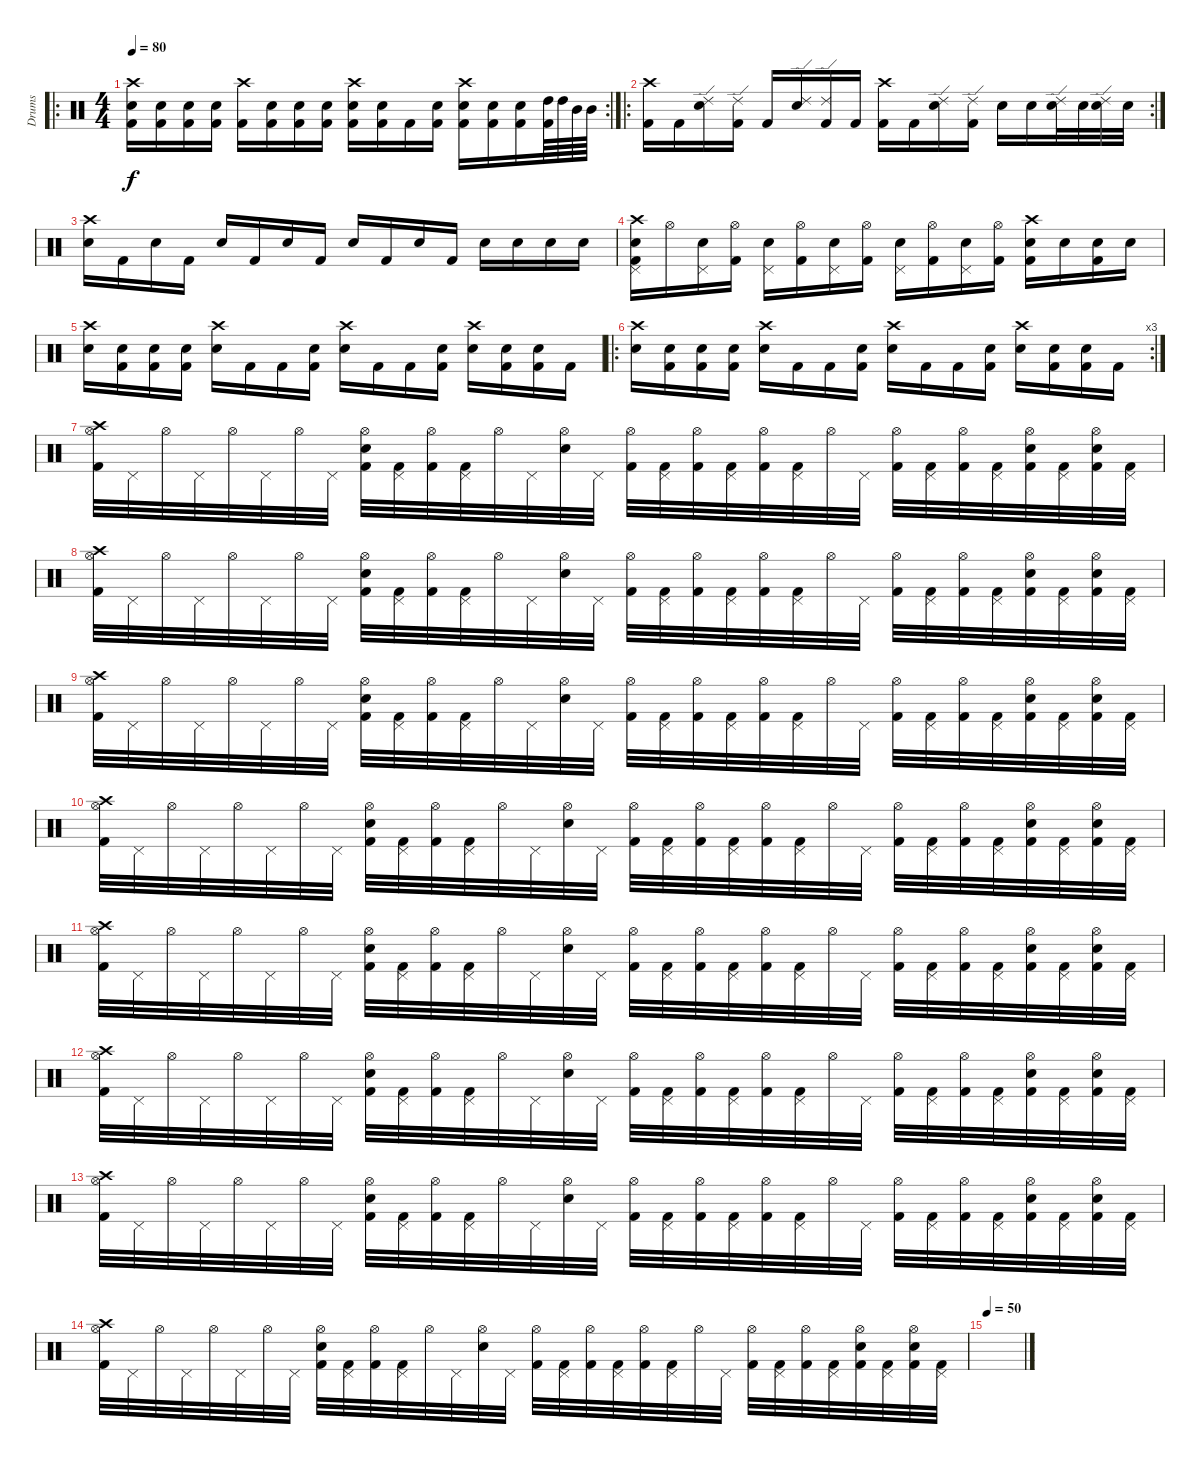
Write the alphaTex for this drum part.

\track ("Drums" "Drums") {instrument percussion}
\staff {score}
\articulation defaults
\ro
\rc 2
\ts (4 4)
\tempo 80
\clef neutral
\ks c
("Crash high (hit)" "Electric Snare (hit)" "Kick (hit) 2").16{dy f} ("Electric Snare (hit)" "Kick (hit) 2").16 ("Electric Snare (hit)" "Kick (hit) 2").16 ("Electric Snare (hit)" "Kick (hit) 2").16 ("Crash high (hit)" "Kick (hit) 2").16 ("Electric Snare (hit)" "Kick (hit) 2").16 ("Electric Snare (hit)" "Kick (hit) 2").16 ("Electric Snare (hit)" "Kick (hit) 2").16 ("Crash high (hit)" "Electric Snare (hit)" "Kick (hit) 2").16 ("Electric Snare (hit)" "Kick (hit) 2").16 "Kick (hit) 2".16 ("Electric Snare (hit)" "Kick (hit) 2").16 ("Crash high (hit)" "Electric Snare (hit)" "Kick (hit) 2").16 ("Electric Snare (hit)" "Kick (hit) 2").16 ("Electric Snare (hit)" "Kick (hit) 2").16 ("High Tom (hit)" "Kick (hit) 2").64 "High Tom (hit)".64 "Mid Tom (hit)".64 "Mid Tom (hit)".64 |
\ro
\rc 2
("Crash high (hit)" "Kick (hit) 2").16 "Kick (hit) 2".16 ("Ride (edge) 2" "Electric Snare (hit)").16 ("Ride (edge) 2" "Kick (hit) 2").16 "Kick (hit) 2".16 ("Ride (edge) 2" "Electric Snare (hit)").16 ("Ride (edge) 2" "Kick (hit) 2").16 "Kick (hit) 2".16 ("Crash high (hit)" "Kick (hit) 2").16 "Kick (hit) 2".16 ("Ride (edge) 2" "Electric Snare (hit)").16 ("Ride (edge) 2" "Kick (hit) 2").16 "Electric Snare (hit)".16 "Electric Snare (hit)".16 ("Ride (edge) 2" "Electric Snare (hit)").32 "Electric Snare (hit)".32 ("Ride (edge) 2" "Electric Snare (hit)").32 "Electric Snare (hit)".32 |
("Crash high (hit)" "Electric Snare (hit)").16 "Kick (hit) 2".16 "Electric Snare (hit)".16 "Kick (hit) 2".16 "Electric Snare (hit)".16 "Kick (hit) 2".16 "Electric Snare (hit)".16 "Kick (hit) 2".16 "Electric Snare (hit)".16 "Kick (hit) 2".16 "Electric Snare (hit)".16 "Kick (hit) 2".16 "Electric Snare (hit)".16 "Electric Snare (hit)".16 "Electric Snare (hit)".16 "Electric Snare (hit)".16 |
("Crash high (hit)" "Pedal Hi-Hat (hit)" "Electric Snare (hit)" "Kick (hit) 2").16 "Hi-Hat (open)".16 ("Pedal Hi-Hat (hit)" "Electric Snare (hit)").16 ("Hi-Hat (open)" "Kick (hit) 2").16 ("Pedal Hi-Hat (hit)" "Electric Snare (hit)").16 ("Hi-Hat (open)" "Kick (hit) 2").16 ("Pedal Hi-Hat (hit)" "Electric Snare (hit)").16 ("Hi-Hat (open)" "Kick (hit) 2").16 ("Pedal Hi-Hat (hit)" "Electric Snare (hit)").16 ("Hi-Hat (open)" "Kick (hit) 2").16 ("Pedal Hi-Hat (hit)" "Electric Snare (hit)").16 ("Hi-Hat (open)" "Kick (hit) 2").16 ("Crash high (hit)" "Electric Snare (hit)" "Kick (hit) 2").16 "Electric Snare (hit)".16 ("Electric Snare (hit)" "Kick (hit) 2").16 "Electric Snare (hit)".16 |
("Crash high (hit)" "Electric Snare (hit)").16 ("Electric Snare (hit)" "Kick (hit) 2").16 ("Electric Snare (hit)" "Kick (hit) 2").16 ("Electric Snare (hit)" "Kick (hit) 2").16 ("Crash high (hit)" "Electric Snare (hit)").16 "Kick (hit) 2".16 "Kick (hit) 2".16 ("Electric Snare (hit)" "Kick (hit) 2").16 ("Crash high (hit)" "Electric Snare (hit)").16 "Kick (hit) 2".16 "Kick (hit) 2".16 ("Electric Snare (hit)" "Kick (hit) 2").16 ("Crash high (hit)" "Electric Snare (hit)").16 ("Electric Snare (hit)" "Kick (hit) 2").16 ("Electric Snare (hit)" "Kick (hit) 2").16 "Kick (hit) 2".16 |
\ro
\rc 3
("Crash high (hit)" "Electric Snare (hit)").16 ("Electric Snare (hit)" "Kick (hit) 2").16 ("Electric Snare (hit)" "Kick (hit) 2").16 ("Electric Snare (hit)" "Kick (hit) 2").16 ("Crash high (hit)" "Electric Snare (hit)").16 "Kick (hit) 2".16 "Kick (hit) 2".16 ("Electric Snare (hit)" "Kick (hit) 2").16 ("Crash high (hit)" "Electric Snare (hit)").16 "Kick (hit) 2".16 "Kick (hit) 2".16 ("Electric Snare (hit)" "Kick (hit) 2").16 ("Crash high (hit)" "Electric Snare (hit)").16 ("Electric Snare (hit)" "Kick (hit) 2").16 ("Electric Snare (hit)" "Kick (hit) 2").16 "Kick (hit) 2".16 |
("Crash high (hit)" "Hi-Hat (open)" "Kick (hit) 2").32 "Pedal Hi-Hat (hit)".32 "Hi-Hat (open)".32 "Pedal Hi-Hat (hit)".32 "Hi-Hat (open)".32 "Pedal Hi-Hat (hit)".32 "Hi-Hat (open)".32 "Pedal Hi-Hat (hit)".32 ("Hi-Hat (open)" "Electric Snare (hit)" "Kick (hit) 2").32 ("Pedal Hi-Hat (hit)" "Kick (hit) 2").32 ("Hi-Hat (open)" "Kick (hit) 2").32 ("Pedal Hi-Hat (hit)" "Kick (hit) 2").32 "Hi-Hat (open)".32 "Pedal Hi-Hat (hit)".32 ("Hi-Hat (open)" "Electric Snare (hit)").32 "Pedal Hi-Hat (hit)".32 ("Hi-Hat (open)" "Kick (hit) 2").32 ("Pedal Hi-Hat (hit)" "Kick (hit) 2").32 ("Hi-Hat (open)" "Kick (hit) 2").32 ("Pedal Hi-Hat (hit)" "Kick (hit) 2").32 ("Hi-Hat (open)" "Kick (hit) 2").32 ("Pedal Hi-Hat (hit)" "Kick (hit) 2").32 "Hi-Hat (open)".32 "Pedal Hi-Hat (hit)".32 ("Hi-Hat (open)" "Kick (hit) 2").32 ("Pedal Hi-Hat (hit)" "Kick (hit) 2").32 ("Hi-Hat (open)" "Kick (hit) 2").32 ("Pedal Hi-Hat (hit)" "Kick (hit) 2").32 ("Hi-Hat (open)" "Electric Snare (hit)" "Kick (hit) 2").32 ("Pedal Hi-Hat (hit)" "Kick (hit) 2").32 ("Hi-Hat (open)" "Electric Snare (hit)" "Kick (hit) 2").32 ("Pedal Hi-Hat (hit)" "Kick (hit) 2").32 |
("Crash high (hit)" "Hi-Hat (open)" "Kick (hit) 2").32{volume 10} "Pedal Hi-Hat (hit)".32 "Hi-Hat (open)".32 "Pedal Hi-Hat (hit)".32 "Hi-Hat (open)".32 "Pedal Hi-Hat (hit)".32 "Hi-Hat (open)".32 "Pedal Hi-Hat (hit)".32 ("Hi-Hat (open)" "Electric Snare (hit)" "Kick (hit) 2").32 ("Pedal Hi-Hat (hit)" "Kick (hit) 2").32 ("Hi-Hat (open)" "Kick (hit) 2").32 ("Pedal Hi-Hat (hit)" "Kick (hit) 2").32 "Hi-Hat (open)".32 "Pedal Hi-Hat (hit)".32 ("Hi-Hat (open)" "Electric Snare (hit)").32 "Pedal Hi-Hat (hit)".32 ("Hi-Hat (open)" "Kick (hit) 2").32 ("Pedal Hi-Hat (hit)" "Kick (hit) 2").32 ("Hi-Hat (open)" "Kick (hit) 2").32 ("Pedal Hi-Hat (hit)" "Kick (hit) 2").32 ("Hi-Hat (open)" "Kick (hit) 2").32 ("Pedal Hi-Hat (hit)" "Kick (hit) 2").32 "Hi-Hat (open)".32 "Pedal Hi-Hat (hit)".32 ("Hi-Hat (open)" "Kick (hit) 2").32 ("Pedal Hi-Hat (hit)" "Kick (hit) 2").32 ("Hi-Hat (open)" "Kick (hit) 2").32 ("Pedal Hi-Hat (hit)" "Kick (hit) 2").32 ("Hi-Hat (open)" "Electric Snare (hit)" "Kick (hit) 2").32 ("Pedal Hi-Hat (hit)" "Kick (hit) 2").32 ("Hi-Hat (open)" "Electric Snare (hit)" "Kick (hit) 2").32 ("Pedal Hi-Hat (hit)" "Kick (hit) 2").32 |
("Crash high (hit)" "Hi-Hat (open)" "Kick (hit) 2").32{volume 6} "Pedal Hi-Hat (hit)".32 "Hi-Hat (open)".32 "Pedal Hi-Hat (hit)".32 "Hi-Hat (open)".32 "Pedal Hi-Hat (hit)".32 "Hi-Hat (open)".32 "Pedal Hi-Hat (hit)".32 ("Hi-Hat (open)" "Electric Snare (hit)" "Kick (hit) 2").32 ("Pedal Hi-Hat (hit)" "Kick (hit) 2").32 ("Hi-Hat (open)" "Kick (hit) 2").32 ("Pedal Hi-Hat (hit)" "Kick (hit) 2").32 "Hi-Hat (open)".32 "Pedal Hi-Hat (hit)".32 ("Hi-Hat (open)" "Electric Snare (hit)").32 "Pedal Hi-Hat (hit)".32 ("Hi-Hat (open)" "Kick (hit) 2").32 ("Pedal Hi-Hat (hit)" "Kick (hit) 2").32 ("Hi-Hat (open)" "Kick (hit) 2").32 ("Pedal Hi-Hat (hit)" "Kick (hit) 2").32 ("Hi-Hat (open)" "Kick (hit) 2").32 ("Pedal Hi-Hat (hit)" "Kick (hit) 2").32 "Hi-Hat (open)".32 "Pedal Hi-Hat (hit)".32 ("Hi-Hat (open)" "Kick (hit) 2").32 ("Pedal Hi-Hat (hit)" "Kick (hit) 2").32 ("Hi-Hat (open)" "Kick (hit) 2").32 ("Pedal Hi-Hat (hit)" "Kick (hit) 2").32 ("Hi-Hat (open)" "Electric Snare (hit)" "Kick (hit) 2").32 ("Pedal Hi-Hat (hit)" "Kick (hit) 2").32 ("Hi-Hat (open)" "Electric Snare (hit)" "Kick (hit) 2").32 ("Pedal Hi-Hat (hit)" "Kick (hit) 2").32 |
("Crash high (hit)" "Hi-Hat (open)" "Kick (hit) 2").32{volume 0} "Pedal Hi-Hat (hit)".32 "Hi-Hat (open)".32 "Pedal Hi-Hat (hit)".32 "Hi-Hat (open)".32 "Pedal Hi-Hat (hit)".32 "Hi-Hat (open)".32 "Pedal Hi-Hat (hit)".32 ("Hi-Hat (open)" "Electric Snare (hit)" "Kick (hit) 2").32 ("Pedal Hi-Hat (hit)" "Kick (hit) 2").32 ("Hi-Hat (open)" "Kick (hit) 2").32 ("Pedal Hi-Hat (hit)" "Kick (hit) 2").32 "Hi-Hat (open)".32 "Pedal Hi-Hat (hit)".32 ("Hi-Hat (open)" "Electric Snare (hit)").32 "Pedal Hi-Hat (hit)".32 ("Hi-Hat (open)" "Kick (hit) 2").32 ("Pedal Hi-Hat (hit)" "Kick (hit) 2").32 ("Hi-Hat (open)" "Kick (hit) 2").32 ("Pedal Hi-Hat (hit)" "Kick (hit) 2").32 ("Hi-Hat (open)" "Kick (hit) 2").32 ("Pedal Hi-Hat (hit)" "Kick (hit) 2").32 "Hi-Hat (open)".32 "Pedal Hi-Hat (hit)".32 ("Hi-Hat (open)" "Kick (hit) 2").32 ("Pedal Hi-Hat (hit)" "Kick (hit) 2").32 ("Hi-Hat (open)" "Kick (hit) 2").32 ("Pedal Hi-Hat (hit)" "Kick (hit) 2").32 ("Hi-Hat (open)" "Electric Snare (hit)" "Kick (hit) 2").32 ("Pedal Hi-Hat (hit)" "Kick (hit) 2").32 ("Hi-Hat (open)" "Electric Snare (hit)" "Kick (hit) 2").32 ("Pedal Hi-Hat (hit)" "Kick (hit) 2").32 |
("Crash high (hit)" "Hi-Hat (open)" "Kick (hit) 2").32{volume 5} "Pedal Hi-Hat (hit)".32 "Hi-Hat (open)".32 "Pedal Hi-Hat (hit)".32 "Hi-Hat (open)".32 "Pedal Hi-Hat (hit)".32 "Hi-Hat (open)".32 "Pedal Hi-Hat (hit)".32 ("Hi-Hat (open)" "Electric Snare (hit)" "Kick (hit) 2").32 ("Pedal Hi-Hat (hit)" "Kick (hit) 2").32 ("Hi-Hat (open)" "Kick (hit) 2").32 ("Pedal Hi-Hat (hit)" "Kick (hit) 2").32 "Hi-Hat (open)".32 "Pedal Hi-Hat (hit)".32 ("Hi-Hat (open)" "Electric Snare (hit)").32 "Pedal Hi-Hat (hit)".32 ("Hi-Hat (open)" "Kick (hit) 2").32 ("Pedal Hi-Hat (hit)" "Kick (hit) 2").32 ("Hi-Hat (open)" "Kick (hit) 2").32 ("Pedal Hi-Hat (hit)" "Kick (hit) 2").32 ("Hi-Hat (open)" "Kick (hit) 2").32 ("Pedal Hi-Hat (hit)" "Kick (hit) 2").32 "Hi-Hat (open)".32 "Pedal Hi-Hat (hit)".32 ("Hi-Hat (open)" "Kick (hit) 2").32 ("Pedal Hi-Hat (hit)" "Kick (hit) 2").32 ("Hi-Hat (open)" "Kick (hit) 2").32 ("Pedal Hi-Hat (hit)" "Kick (hit) 2").32 ("Hi-Hat (open)" "Electric Snare (hit)" "Kick (hit) 2").32 ("Pedal Hi-Hat (hit)" "Kick (hit) 2").32 ("Hi-Hat (open)" "Electric Snare (hit)" "Kick (hit) 2").32 ("Pedal Hi-Hat (hit)" "Kick (hit) 2").32 |
("Crash high (hit)" "Hi-Hat (open)" "Kick (hit) 2").32{volume 8} "Pedal Hi-Hat (hit)".32 "Hi-Hat (open)".32 "Pedal Hi-Hat (hit)".32 "Hi-Hat (open)".32 "Pedal Hi-Hat (hit)".32 "Hi-Hat (open)".32 "Pedal Hi-Hat (hit)".32 ("Hi-Hat (open)" "Electric Snare (hit)" "Kick (hit) 2").32 ("Pedal Hi-Hat (hit)" "Kick (hit) 2").32 ("Hi-Hat (open)" "Kick (hit) 2").32 ("Pedal Hi-Hat (hit)" "Kick (hit) 2").32 "Hi-Hat (open)".32 "Pedal Hi-Hat (hit)".32 ("Hi-Hat (open)" "Electric Snare (hit)").32 "Pedal Hi-Hat (hit)".32 ("Hi-Hat (open)" "Kick (hit) 2").32 ("Pedal Hi-Hat (hit)" "Kick (hit) 2").32 ("Hi-Hat (open)" "Kick (hit) 2").32 ("Pedal Hi-Hat (hit)" "Kick (hit) 2").32 ("Hi-Hat (open)" "Kick (hit) 2").32 ("Pedal Hi-Hat (hit)" "Kick (hit) 2").32 "Hi-Hat (open)".32 "Pedal Hi-Hat (hit)".32 ("Hi-Hat (open)" "Kick (hit) 2").32 ("Pedal Hi-Hat (hit)" "Kick (hit) 2").32 ("Hi-Hat (open)" "Kick (hit) 2").32 ("Pedal Hi-Hat (hit)" "Kick (hit) 2").32 ("Hi-Hat (open)" "Electric Snare (hit)" "Kick (hit) 2").32 ("Pedal Hi-Hat (hit)" "Kick (hit) 2").32 ("Hi-Hat (open)" "Electric Snare (hit)" "Kick (hit) 2").32 ("Pedal Hi-Hat (hit)" "Kick (hit) 2").32 |
("Crash high (hit)" "Hi-Hat (open)" "Kick (hit) 2").32{volume 11} "Pedal Hi-Hat (hit)".32 "Hi-Hat (open)".32 "Pedal Hi-Hat (hit)".32 "Hi-Hat (open)".32 "Pedal Hi-Hat (hit)".32 "Hi-Hat (open)".32 "Pedal Hi-Hat (hit)".32 ("Hi-Hat (open)" "Electric Snare (hit)" "Kick (hit) 2").32 ("Pedal Hi-Hat (hit)" "Kick (hit) 2").32 ("Hi-Hat (open)" "Kick (hit) 2").32 ("Pedal Hi-Hat (hit)" "Kick (hit) 2").32 "Hi-Hat (open)".32 "Pedal Hi-Hat (hit)".32 ("Hi-Hat (open)" "Electric Snare (hit)").32 "Pedal Hi-Hat (hit)".32 ("Hi-Hat (open)" "Kick (hit) 2").32 ("Pedal Hi-Hat (hit)" "Kick (hit) 2").32 ("Hi-Hat (open)" "Kick (hit) 2").32 ("Pedal Hi-Hat (hit)" "Kick (hit) 2").32 ("Hi-Hat (open)" "Kick (hit) 2").32 ("Pedal Hi-Hat (hit)" "Kick (hit) 2").32 "Hi-Hat (open)".32 "Pedal Hi-Hat (hit)".32 ("Hi-Hat (open)" "Kick (hit) 2").32 ("Pedal Hi-Hat (hit)" "Kick (hit) 2").32 ("Hi-Hat (open)" "Kick (hit) 2").32 ("Pedal Hi-Hat (hit)" "Kick (hit) 2").32 ("Hi-Hat (open)" "Electric Snare (hit)" "Kick (hit) 2").32 ("Pedal Hi-Hat (hit)" "Kick (hit) 2").32 ("Hi-Hat (open)" "Electric Snare (hit)" "Kick (hit) 2").32 ("Pedal Hi-Hat (hit)" "Kick (hit) 2").32 |
("Crash high (hit)" "Hi-Hat (open)" "Kick (hit) 2").32{volume 13} "Pedal Hi-Hat (hit)".32 "Hi-Hat (open)".32 "Pedal Hi-Hat (hit)".32 "Hi-Hat (open)".32 "Pedal Hi-Hat (hit)".32 "Hi-Hat (open)".32 "Pedal Hi-Hat (hit)".32 ("Hi-Hat (open)" "Electric Snare (hit)" "Kick (hit) 2").32 ("Pedal Hi-Hat (hit)" "Kick (hit) 2").32 ("Hi-Hat (open)" "Kick (hit) 2").32 ("Pedal Hi-Hat (hit)" "Kick (hit) 2").32 "Hi-Hat (open)".32 "Pedal Hi-Hat (hit)".32 ("Hi-Hat (open)" "Electric Snare (hit)").32 "Pedal Hi-Hat (hit)".32 ("Hi-Hat (open)" "Kick (hit) 2").32 ("Pedal Hi-Hat (hit)" "Kick (hit) 2").32 ("Hi-Hat (open)" "Kick (hit) 2").32 ("Pedal Hi-Hat (hit)" "Kick (hit) 2").32 ("Hi-Hat (open)" "Kick (hit) 2").32 ("Pedal Hi-Hat (hit)" "Kick (hit) 2").32 "Hi-Hat (open)".32 "Pedal Hi-Hat (hit)".32 ("Hi-Hat (open)" "Kick (hit) 2").32 ("Pedal Hi-Hat (hit)" "Kick (hit) 2").32 ("Hi-Hat (open)" "Kick (hit) 2").32 ("Pedal Hi-Hat (hit)" "Kick (hit) 2").32 ("Hi-Hat (open)" "Electric Snare (hit)" "Kick (hit) 2").32 ("Pedal Hi-Hat (hit)" "Kick (hit) 2").32 ("Hi-Hat (open)" "Electric Snare (hit)" "Kick (hit) 2").32 ("Pedal Hi-Hat (hit)" "Kick (hit) 2").32 |
\tempo 50
